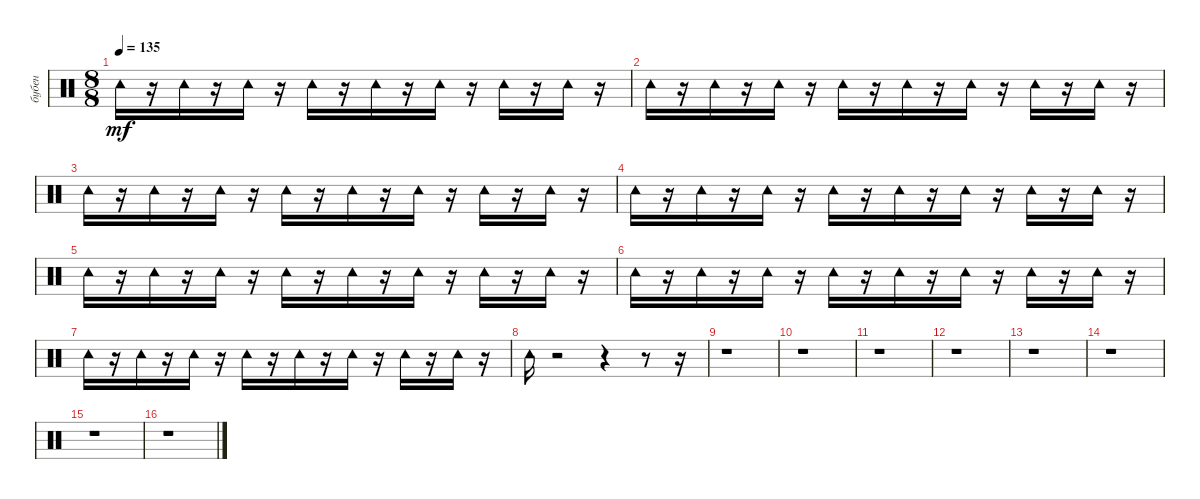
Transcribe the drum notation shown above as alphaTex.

\track ("бубен" "бубен") {instrument percussion}
\staff {score}
\articulation defaults
\ts (8 8)
\tempo 135
\clef neutral
\ks c "Tambourine (hit)".16{dy mf}
r.16 "Tambourine (hit)".16 r.16 "Tambourine (hit)".16 r.16 "Tambourine (hit)".16 r.16 "Tambourine (hit)".16 r.16 "Tambourine (hit)".16 r.16 "Tambourine (hit)".16 r.16 "Tambourine (hit)".16 r.16 |
"Tambourine (hit)".16 r.16 "Tambourine (hit)".16 r.16 "Tambourine (hit)".16 r.16 "Tambourine (hit)".16 r.16 "Tambourine (hit)".16 r.16 "Tambourine (hit)".16 r.16 "Tambourine (hit)".16 r.16 "Tambourine (hit)".16 r.16 |
"Tambourine (hit)".16 r.16 "Tambourine (hit)".16 r.16 "Tambourine (hit)".16 r.16 "Tambourine (hit)".16 r.16 "Tambourine (hit)".16 r.16 "Tambourine (hit)".16 r.16 "Tambourine (hit)".16 r.16 "Tambourine (hit)".16 r.16 |
"Tambourine (hit)".16 r.16 "Tambourine (hit)".16 r.16 "Tambourine (hit)".16 r.16 "Tambourine (hit)".16 r.16 "Tambourine (hit)".16 r.16 "Tambourine (hit)".16 r.16 "Tambourine (hit)".16 r.16 "Tambourine (hit)".16 r.16 |
"Tambourine (hit)".16 r.16 "Tambourine (hit)".16 r.16 "Tambourine (hit)".16 r.16 "Tambourine (hit)".16 r.16 "Tambourine (hit)".16 r.16 "Tambourine (hit)".16 r.16 "Tambourine (hit)".16 r.16 "Tambourine (hit)".16 r.16 |
"Tambourine (hit)".16 r.16 "Tambourine (hit)".16 r.16 "Tambourine (hit)".16 r.16 "Tambourine (hit)".16 r.16 "Tambourine (hit)".16 r.16 "Tambourine (hit)".16 r.16 "Tambourine (hit)".16 r.16 "Tambourine (hit)".16 r.16 |
"Tambourine (hit)".16 r.16 "Tambourine (hit)".16 r.16 "Tambourine (hit)".16 r.16 "Tambourine (hit)".16 r.16 "Tambourine (hit)".16 r.16 "Tambourine (hit)".16 r.16 "Tambourine (hit)".16 r.16 "Tambourine (hit)".16 r.16 |
"Tambourine (hit)".16 r.2 r.4 r.8 r.16 |
r.1 |
r.1 |
r.1 |
r.1 |
r.1 |
r.1 |
r.1 |
r.1
